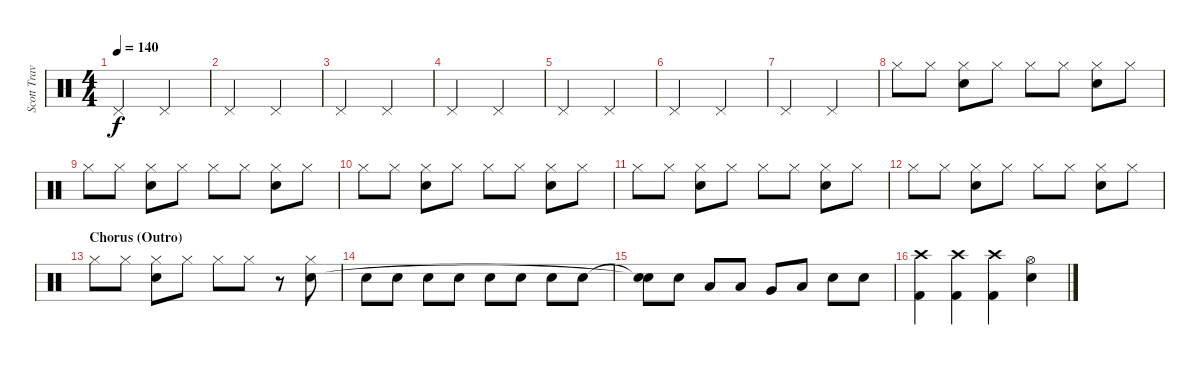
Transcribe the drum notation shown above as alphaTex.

\track ("Scott Travis" "Scott Trav") {instrument percussion}
\staff {score}
\articulation defaults
\ts (4 4)
\tempo 140
\clef neutral
\ks c "Pedal Hi-Hat (hit)".2{dy f} "Pedal Hi-Hat (hit)".2
|
"Pedal Hi-Hat (hit)".2 "Pedal Hi-Hat (hit)".2 |
"Pedal Hi-Hat (hit)".2 "Pedal Hi-Hat (hit)".2 |
"Pedal Hi-Hat (hit)".2 "Pedal Hi-Hat (hit)".2 |
"Pedal Hi-Hat (hit)".2 "Pedal Hi-Hat (hit)".2 |
"Pedal Hi-Hat (hit)".2 "Pedal Hi-Hat (hit)".2 |
"Pedal Hi-Hat (hit)".2 "Pedal Hi-Hat (hit)".2 |
"Hi-Hat (closed)".8 "Hi-Hat (closed)".8 ("Hi-Hat (closed)" "Snare (hit) 2").8 "Hi-Hat (closed)".8 "Hi-Hat (closed)".8 "Hi-Hat (closed)".8 ("Hi-Hat (closed)" "Snare (hit) 2").8 "Hi-Hat (closed)".8 |
"Hi-Hat (closed)".8 "Hi-Hat (closed)".8 ("Hi-Hat (closed)" "Snare (hit) 2").8 "Hi-Hat (closed)".8 "Hi-Hat (closed)".8 "Hi-Hat (closed)".8 ("Hi-Hat (closed)" "Snare (hit) 2").8 "Hi-Hat (closed)".8 |
"Hi-Hat (closed)".8 "Hi-Hat (closed)".8 ("Hi-Hat (closed)" "Snare (hit) 2").8 "Hi-Hat (closed)".8 "Hi-Hat (closed)".8 "Hi-Hat (closed)".8 ("Hi-Hat (closed)" "Snare (hit) 2").8 "Hi-Hat (closed)".8 |
"Hi-Hat (closed)".8 "Hi-Hat (closed)".8 ("Hi-Hat (closed)" "Snare (hit) 2").8 "Hi-Hat (closed)".8 "Hi-Hat (closed)".8 "Hi-Hat (closed)".8 ("Hi-Hat (closed)" "Snare (hit) 2").8 "Hi-Hat (closed)".8 |
"Hi-Hat (closed)".8 "Hi-Hat (closed)".8 ("Hi-Hat (closed)" "Snare (hit) 2").8 "Hi-Hat (closed)".8 "Hi-Hat (closed)".8 "Hi-Hat (closed)".8 ("Hi-Hat (closed)" "Snare (hit) 2").8 "Hi-Hat (closed)".8 |
\section ("" "Chorus (Outro)")
"Hi-Hat (closed)".8 "Hi-Hat (closed)".8 ("Hi-Hat (closed)" "Snare (hit) 2").8 "Hi-Hat (closed)".8 "Hi-Hat (closed)".8 "Hi-Hat (closed)".8 r.8 ("Hi-Hat (closed)" "Snare (hit) 2").8 |
"Snare (hit) 2".8 "Snare (hit) 2".8 "Snare (hit) 2".8 "Snare (hit) 2".8 "Snare (hit) 2".8 "Snare (hit) 2".8 "Snare (hit) 2".8 "Snare (hit) 2".8 |
("Snare (hit)"{t} "Snare (hit)"{t}).8 "Snare (hit) 2".8 "Low Tom (hit)".8 "Low Tom (hit)".8 "Very Low Tom (hit)".8 "Low Floor Tom (hit)".8 "Snare (hit) 2".8 "Snare (hit) 2".8 |
("Crash high (hit)" "Kick (hit) 2").4 ("Crash high (hit)" "Kick (hit) 2").4 ("Crash high (hit)" "Kick (hit) 2").4 ("Hi-Hat (open)" "Snare (hit) 2").4
